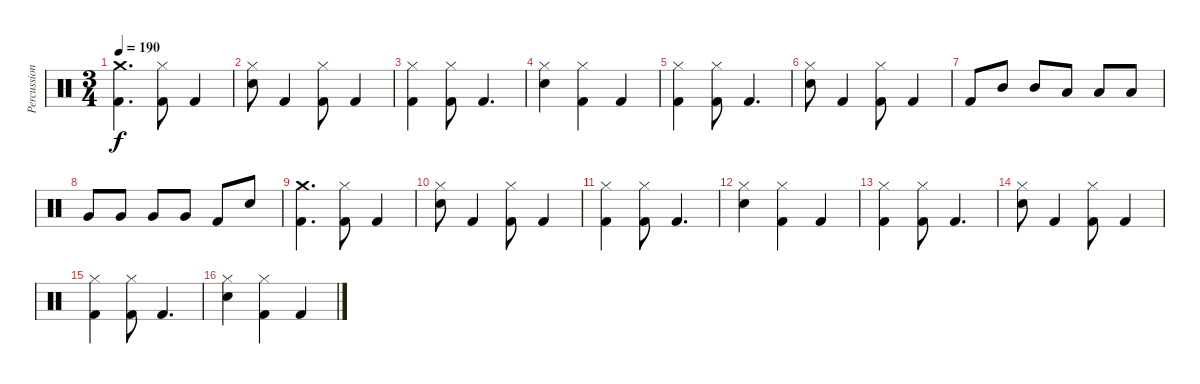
\track ("Percussion" "Percussion") {instrument percussion}
\staff {score}
\articulation defaults
\ts (3 4)
\tempo 190
\clef neutral
\ks c
("Kick (hit) 2" "Crash medium (hit)").4{d dy f} ("Kick (hit) 2" "Hi-Hat (closed)").8 "Kick (hit) 2".4 |
("Snare (hit) 2" "Hi-Hat (closed)").8 "Kick (hit) 2".4 ("Kick (hit) 2" "Hi-Hat (closed)").8 "Kick (hit) 2".4 |
("Kick (hit) 2" "Hi-Hat (closed)").4 ("Kick (hit) 2" "Hi-Hat (closed)").8 "Kick (hit) 2".4{d} |
("Snare (hit) 2" "Hi-Hat (closed)").4 ("Kick (hit) 2" "Hi-Hat (closed)").4 "Kick (hit) 2".4 |
("Kick (hit) 2" "Hi-Hat (closed)").4 ("Kick (hit) 2" "Hi-Hat (closed)").8 "Kick (hit) 2".4{d} |
("Snare (hit) 2" "Hi-Hat (closed)").8 "Kick (hit) 2".4 ("Kick (hit) 2" "Hi-Hat (closed)").8 "Kick (hit) 2".4 |
"Kick (hit) 2".8 "Mid Tom (hit)".8 "Mid Tom (hit)".8 "Low Tom (hit)".8 "Low Tom (hit)".8 "Low Tom (hit)".8 |
"Very Low Tom (hit)".8 "Very Low Tom (hit)".8 "Very Low Tom (hit)".8 "Very Low Tom (hit)".8 "Kick (hit) 2".8 "Snare (hit) 2".8 |
("Kick (hit) 2" "Crash medium (hit)").4{d} ("Kick (hit) 2" "Hi-Hat (closed)").8 "Kick (hit) 2".4 |
("Snare (hit) 2" "Hi-Hat (closed)").8 "Kick (hit) 2".4 ("Kick (hit) 2" "Hi-Hat (closed)").8 "Kick (hit) 2".4 |
("Kick (hit) 2" "Hi-Hat (closed)").4 ("Kick (hit) 2" "Hi-Hat (closed)").8 "Kick (hit) 2".4{d} |
("Snare (hit) 2" "Hi-Hat (closed)").4 ("Kick (hit) 2" "Hi-Hat (closed)").4 "Kick (hit) 2".4 |
("Kick (hit) 2" "Hi-Hat (closed)").4 ("Kick (hit) 2" "Hi-Hat (closed)").8 "Kick (hit) 2".4{d} |
("Snare (hit) 2" "Hi-Hat (closed)").8 "Kick (hit) 2".4 ("Kick (hit) 2" "Hi-Hat (closed)").8 "Kick (hit) 2".4 |
("Kick (hit) 2" "Hi-Hat (closed)").4 ("Kick (hit) 2" "Hi-Hat (closed)").8 "Kick (hit) 2".4{d} |
("Snare (hit) 2" "Hi-Hat (closed)").4 ("Kick (hit) 2" "Hi-Hat (closed)").4 "Kick (hit) 2".4
